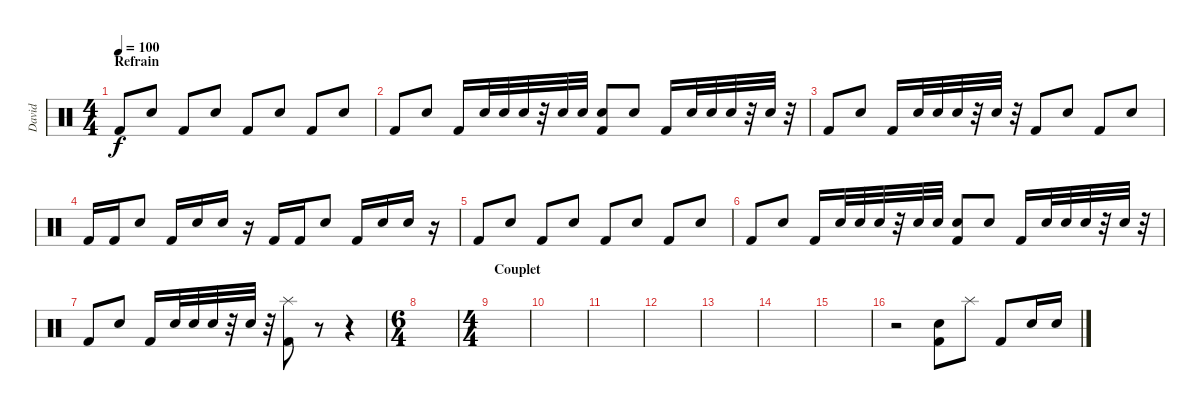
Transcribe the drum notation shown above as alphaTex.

\track ("David" "David") {instrument percussion}
\staff {score}
\articulation defaults
\ts (4 4)
\section ("" "Refrain")
\tempo 100
\clef neutral
\ks c "Kick (hit) 2".8{dy f} "Electric Snare (hit)".8 "Kick (hit) 2".8 "Electric Snare (hit)".8 "Kick (hit) 2".8 "Electric Snare (hit)".8 "Kick (hit) 2".8 "Electric Snare (hit)".8
|
"Kick (hit) 2".8 "Electric Snare (hit)".8 "Kick (hit) 2".16 "Electric Snare (hit)".32 "Electric Snare (hit)".32 "Electric Snare (hit)".32 r.32 "Electric Snare (hit)".32 "Electric Snare (hit)".32 ("Electric Snare (hit)" "Kick (hit) 2").8 "Electric Snare (hit)".8 "Kick (hit) 2".16 "Electric Snare (hit)".32 "Electric Snare (hit)".32 "Electric Snare (hit)".32 r.32 "Electric Snare (hit)".32 r.32 |
"Kick (hit) 2".8 "Electric Snare (hit)".8 "Kick (hit) 2".16 "Electric Snare (hit)".32 "Electric Snare (hit)".32 "Electric Snare (hit)".32 r.32 "Electric Snare (hit)".32 r.32 "Kick (hit) 2".8 "Electric Snare (hit)".8 "Kick (hit) 2".8 "Electric Snare (hit)".8 |
"Kick (hit) 2".16 "Kick (hit) 2".16 "Electric Snare (hit)".8 "Kick (hit) 2".16 "Electric Snare (hit)".16 "Electric Snare (hit)".16 r.16 "Kick (hit) 2".16 "Kick (hit) 2".16 "Electric Snare (hit)".8 "Kick (hit) 2".16 "Electric Snare (hit)".16 "Electric Snare (hit)".16 r.16 |
"Kick (hit) 2".8 "Electric Snare (hit)".8 "Kick (hit) 2".8 "Electric Snare (hit)".8 "Kick (hit) 2".8 "Electric Snare (hit)".8 "Kick (hit) 2".8 "Electric Snare (hit)".8 |
"Kick (hit) 2".8 "Electric Snare (hit)".8 "Kick (hit) 2".16 "Electric Snare (hit)".32 "Electric Snare (hit)".32 "Electric Snare (hit)".32 r.32 "Electric Snare (hit)".32 "Electric Snare (hit)".32 ("Electric Snare (hit)" "Kick (hit) 2").8 "Electric Snare (hit)".8 "Kick (hit) 2".16 "Electric Snare (hit)".32 "Electric Snare (hit)".32 "Electric Snare (hit)".32 r.32 "Electric Snare (hit)".32 r.32 |
"Kick (hit) 2".8 "Electric Snare (hit)".8 "Kick (hit) 2".16 "Electric Snare (hit)".32 "Electric Snare (hit)".32 "Electric Snare (hit)".32 r.32 "Electric Snare (hit)".32 r.32 ("Splash (hit)" "Kick (hit) 2").8 r.8 r.4 |
\ts (6 4)
|
\ts (4 4)
\section ("" "Couplet")
|
|
|
|
|
|
|
r.2 ("Electric Snare (hit)" "Kick (hit) 2").8 "Splash (hit)".8 "Kick (hit) 2".8 "Electric Snare (hit)".16 "Electric Snare (hit)".16
